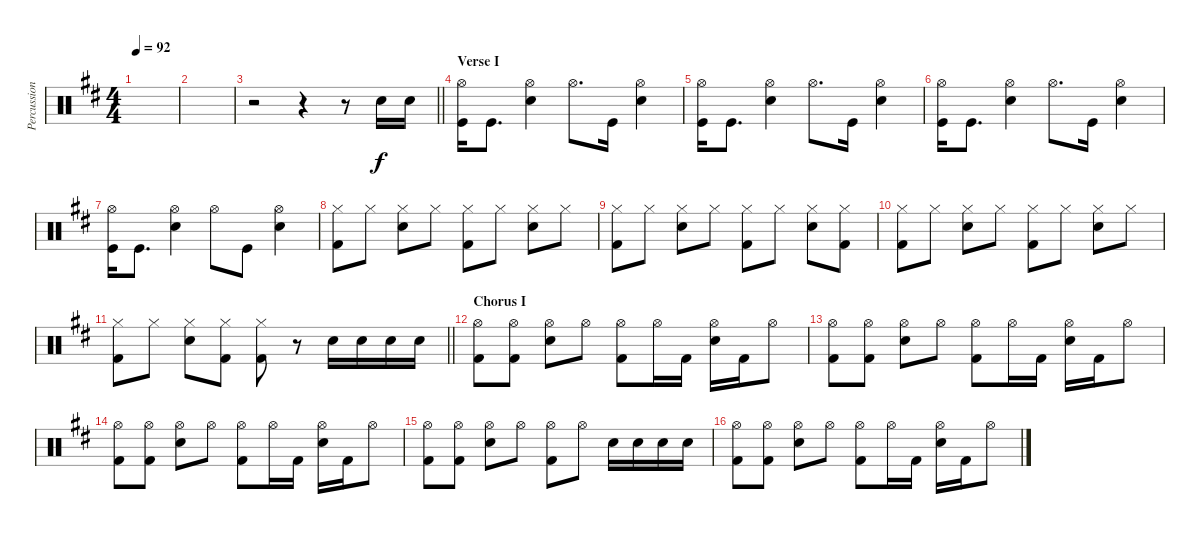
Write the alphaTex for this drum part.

\track ("Percussion" "Percussion") {instrument percussion}
\staff {score}
\articulation defaults
\ts (4 4)
\tempo 92
\clef neutral
\ks d
|
|
\barLineRight lightlight
r.2 r.4 r.8 "Snare (hit) 2".16 "Snare (hit) 2".16 |
\section ("" "Verse I")
("Hi-Hat (open)" "Kick (hit)").16 "Kick (hit)".8{d} ("Hi-Hat (open)" "Snare (hit) 2").4 "Hi-Hat (open)".8{d} "Kick (hit)".16 ("Hi-Hat (open)" "Snare (hit) 2").4 |
("Hi-Hat (open)" "Kick (hit)").16 "Kick (hit)".8{d} ("Hi-Hat (open)" "Snare (hit) 2").4 "Hi-Hat (open)".8{d} "Kick (hit)".16 ("Hi-Hat (open)" "Snare (hit) 2").4 |
("Hi-Hat (open)" "Kick (hit)").16 "Kick (hit)".8{d} ("Hi-Hat (open)" "Snare (hit) 2").4 "Hi-Hat (open)".8{d} "Kick (hit)".16 ("Hi-Hat (open)" "Snare (hit) 2").4 |
("Hi-Hat (open)" "Kick (hit)").16 "Kick (hit)".8{d} ("Hi-Hat (open)" "Snare (hit) 2").4 "Hi-Hat (open)".8 "Kick (hit)".8 ("Hi-Hat (open)" "Snare (hit) 2").4 |
("Hi-Hat (closed)" "Kick (hit) 2").8 "Hi-Hat (closed)".8 ("Hi-Hat (closed)" "Snare (hit) 2").8 "Hi-Hat (closed)".8 ("Hi-Hat (closed)" "Kick (hit) 2").8 "Hi-Hat (closed)".8 ("Hi-Hat (closed)" "Snare (hit) 2").8 "Hi-Hat (closed)".8 |
("Hi-Hat (closed)" "Kick (hit) 2").8 "Hi-Hat (closed)".8 ("Hi-Hat (closed)" "Snare (hit) 2").8 "Hi-Hat (closed)".8 ("Hi-Hat (closed)" "Kick (hit) 2").8 "Hi-Hat (closed)".8 ("Hi-Hat (closed)" "Snare (hit) 2").8 ("Hi-Hat (closed)" "Kick (hit) 2").8 |
("Hi-Hat (closed)" "Kick (hit) 2").8 "Hi-Hat (closed)".8 ("Hi-Hat (closed)" "Snare (hit) 2").8 "Hi-Hat (closed)".8 ("Hi-Hat (closed)" "Kick (hit) 2").8 "Hi-Hat (closed)".8 ("Hi-Hat (closed)" "Snare (hit) 2").8 "Hi-Hat (closed)".8 |
\barLineRight lightlight
("Hi-Hat (closed)" "Kick (hit) 2").8 "Hi-Hat (closed)".8 ("Hi-Hat (closed)" "Snare (hit) 2").8 ("Hi-Hat (closed)" "Kick (hit) 2").8 ("Hi-Hat (closed)" "Kick (hit) 2").8 r.8 "Snare (hit) 2".16 "Snare (hit) 2".16 "Snare (hit) 2".16 "Snare (hit) 2".16 |
\section ("" "Chorus I")
("Hi-Hat (open)" "Kick (hit) 2").8 ("Hi-Hat (open)" "Kick (hit) 2").8 ("Hi-Hat (open)" "Snare (hit) 2").8 "Hi-Hat (open)".8 ("Hi-Hat (open)" "Kick (hit) 2").8 "Hi-Hat (open)".16 "Kick (hit) 2".16 ("Hi-Hat (open)" "Snare (hit) 2").16 "Kick (hit) 2".16 "Hi-Hat (open)".8 |
("Hi-Hat (open)" "Kick (hit) 2").8 ("Hi-Hat (open)" "Kick (hit) 2").8 ("Hi-Hat (open)" "Snare (hit) 2").8 "Hi-Hat (open)".8 ("Hi-Hat (open)" "Kick (hit) 2").8 "Hi-Hat (open)".16 "Kick (hit) 2".16 ("Hi-Hat (open)" "Snare (hit) 2").16 "Kick (hit) 2".16 "Hi-Hat (open)".8 |
("Hi-Hat (open)" "Kick (hit) 2").8 ("Hi-Hat (open)" "Kick (hit) 2").8 ("Hi-Hat (open)" "Snare (hit) 2").8 "Hi-Hat (open)".8 ("Hi-Hat (open)" "Kick (hit) 2").8 "Hi-Hat (open)".16 "Kick (hit) 2".16 ("Hi-Hat (open)" "Snare (hit) 2").16 "Kick (hit) 2".16 "Hi-Hat (open)".8 |
("Hi-Hat (open)" "Kick (hit) 2").8 ("Hi-Hat (open)" "Kick (hit) 2").8 ("Hi-Hat (open)" "Snare (hit) 2").8 "Hi-Hat (open)".8 ("Hi-Hat (open)" "Kick (hit) 2").8 "Hi-Hat (open)".8 "Snare (hit) 2".16 "Snare (hit) 2".16 "Snare (hit) 2".16 "Snare (hit) 2".16 |
("Hi-Hat (open)" "Kick (hit) 2").8 ("Hi-Hat (open)" "Kick (hit) 2").8 ("Hi-Hat (open)" "Snare (hit) 2").8 "Hi-Hat (open)".8 ("Hi-Hat (open)" "Kick (hit) 2").8 "Hi-Hat (open)".16 "Kick (hit) 2".16 ("Hi-Hat (open)" "Snare (hit) 2").16 "Kick (hit) 2".16 "Hi-Hat (open)".8
